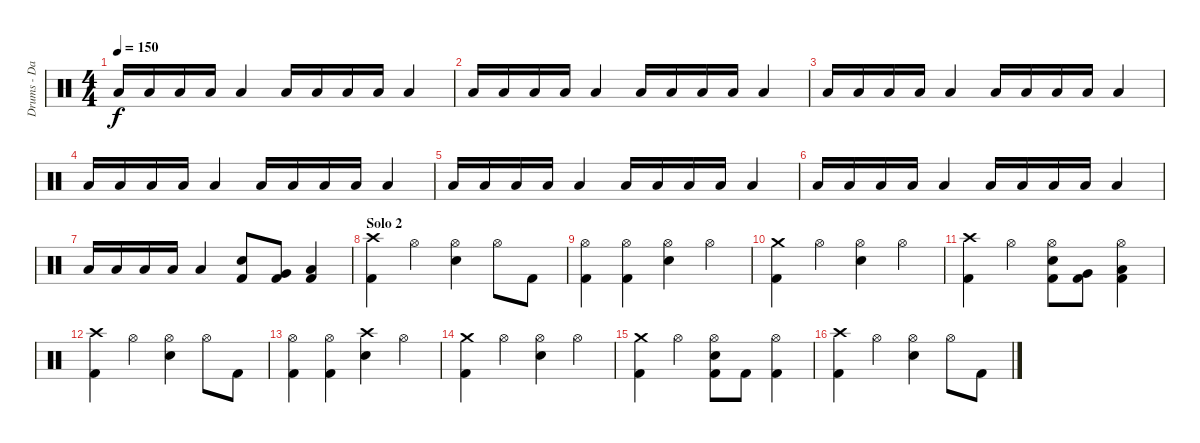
\track ("Drums - Dan Zimmermann" "Drums - Da") {instrument percussion}
\staff {score}
\articulation defaults
\ts (4 4)
\tempo 150
\clef neutral
\ks c "Low Floor Tom (hit)".16{dy f} "Low Floor Tom (hit)".16 "Low Floor Tom (hit)".16 "Low Floor Tom (hit)".16 "Low Floor Tom (hit)".4 "Low Floor Tom (hit)".16 "Low Floor Tom (hit)".16 "Low Floor Tom (hit)".16 "Low Floor Tom (hit)".16 "Low Floor Tom (hit)".4
|
"Low Floor Tom (hit)".16 "Low Floor Tom (hit)".16 "Low Floor Tom (hit)".16 "Low Floor Tom (hit)".16 "Low Floor Tom (hit)".4 "Low Floor Tom (hit)".16 "Low Floor Tom (hit)".16 "Low Floor Tom (hit)".16 "Low Floor Tom (hit)".16 "Low Floor Tom (hit)".4 |
"Low Floor Tom (hit)".16 "Low Floor Tom (hit)".16 "Low Floor Tom (hit)".16 "Low Floor Tom (hit)".16 "Low Floor Tom (hit)".4 "Low Floor Tom (hit)".16 "Low Floor Tom (hit)".16 "Low Floor Tom (hit)".16 "Low Floor Tom (hit)".16 "Low Floor Tom (hit)".4 |
"Low Floor Tom (hit)".16 "Low Floor Tom (hit)".16 "Low Floor Tom (hit)".16 "Low Floor Tom (hit)".16 "Low Floor Tom (hit)".4 "Low Floor Tom (hit)".16 "Low Floor Tom (hit)".16 "Low Floor Tom (hit)".16 "Low Floor Tom (hit)".16 "Low Floor Tom (hit)".4 |
"Low Floor Tom (hit)".16 "Low Floor Tom (hit)".16 "Low Floor Tom (hit)".16 "Low Floor Tom (hit)".16 "Low Floor Tom (hit)".4 "Low Floor Tom (hit)".16 "Low Floor Tom (hit)".16 "Low Floor Tom (hit)".16 "Low Floor Tom (hit)".16 "Low Floor Tom (hit)".4 |
"Low Floor Tom (hit)".16 "Low Floor Tom (hit)".16 "Low Floor Tom (hit)".16 "Low Floor Tom (hit)".16 "Low Floor Tom (hit)".4 "Low Floor Tom (hit)".16 "Low Floor Tom (hit)".16 "Low Floor Tom (hit)".16 "Low Floor Tom (hit)".16 "Low Floor Tom (hit)".4 |
"Low Floor Tom (hit)".16 "Low Floor Tom (hit)".16 "Low Floor Tom (hit)".16 "Low Floor Tom (hit)".16 "Low Floor Tom (hit)".4 ("Kick (hit) 2" "Electric Snare (hit)").8 ("Kick (hit) 2" "Very Low Tom (hit)").8 ("Kick (hit) 2" "Low Floor Tom (hit)").4 |
\section ("" "Solo 2")
("Kick (hit) 2" "Crash high (hit)").4 "Hi-Hat (open)".4 ("Electric Snare (hit)" "Hi-Hat (open)").4 "Hi-Hat (open)".8 "Kick (hit) 2".8 |
("Kick (hit) 2" "Hi-Hat (open)").4 ("Kick (hit) 2" "Hi-Hat (open)").4 ("Electric Snare (hit)" "Hi-Hat (open)").4 "Hi-Hat (open)".4 |
("Kick (hit) 2" "Crash medium (hit)").4 "Hi-Hat (open)".4 ("Electric Snare (hit)" "Hi-Hat (open)").4 "Hi-Hat (open)".4 |
("Kick (hit) 2" "Crash high (hit)").4 "Hi-Hat (open)".4 ("Kick (hit) 2" "Electric Snare (hit)" "Hi-Hat (open)").8 ("Kick (hit) 2" "Very Low Tom (hit)").8 ("Kick (hit) 2" "Low Floor Tom (hit)" "Hi-Hat (open)").4 |
("Kick (hit) 2" "Crash high (hit)").4 "Hi-Hat (open)".4 ("Electric Snare (hit)" "Hi-Hat (open)").4 "Hi-Hat (open)".8 "Kick (hit) 2".8 |
("Kick (hit) 2" "Hi-Hat (open)").4 ("Kick (hit) 2" "Hi-Hat (open)").4 ("Electric Snare (hit)" "Crash high (hit)").4 "Hi-Hat (open)".4 |
("Kick (hit) 2" "Crash medium (hit)").4 "Hi-Hat (open)".4 ("Electric Snare (hit)" "Hi-Hat (open)").4 "Hi-Hat (open)".4 |
("Kick (hit) 2" "Crash medium (hit)").4 "Hi-Hat (open)".4 ("Kick (hit) 2" "Electric Snare (hit)" "Hi-Hat (open)").8 "Kick (hit) 2".8 ("Kick (hit) 2" "Hi-Hat (open)").4 |
("Kick (hit) 2" "Crash high (hit)").4 "Hi-Hat (open)".4 ("Electric Snare (hit)" "Hi-Hat (open)").4 "Hi-Hat (open)".8 "Kick (hit) 2".8
